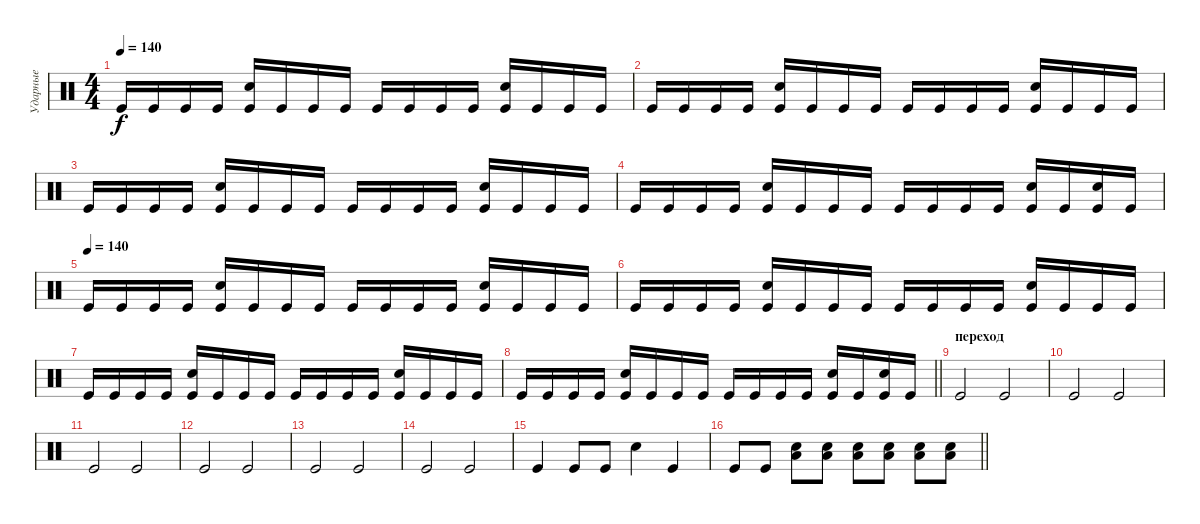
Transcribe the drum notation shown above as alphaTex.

\track ("Ударные" "Ударные") {instrument percussion}
\staff {score}
\articulation defaults
\ts (4 4)
\tempo 140
\clef neutral
\ks c "Kick (hit)".16{dy f} "Kick (hit)".16 "Kick (hit)".16 "Kick (hit)".16
("Kick (hit)" "Electric Snare (hit)").16 "Kick (hit)".16 "Kick (hit)".16 "Kick (hit)".16 "Kick (hit)".16 "Kick (hit)".16 "Kick (hit)".16 "Kick (hit)".16 ("Kick (hit)" "Electric Snare (hit)").16 "Kick (hit)".16 "Kick (hit)".16 "Kick (hit)".16 |
"Kick (hit)".16 "Kick (hit)".16 "Kick (hit)".16 "Kick (hit)".16 ("Kick (hit)" "Electric Snare (hit)").16 "Kick (hit)".16 "Kick (hit)".16 "Kick (hit)".16 "Kick (hit)".16 "Kick (hit)".16 "Kick (hit)".16 "Kick (hit)".16 ("Kick (hit)" "Electric Snare (hit)").16 "Kick (hit)".16 "Kick (hit)".16 "Kick (hit)".16 |
"Kick (hit)".16 "Kick (hit)".16 "Kick (hit)".16 "Kick (hit)".16 ("Kick (hit)" "Electric Snare (hit)").16 "Kick (hit)".16 "Kick (hit)".16 "Kick (hit)".16 "Kick (hit)".16 "Kick (hit)".16 "Kick (hit)".16 "Kick (hit)".16 ("Kick (hit)" "Electric Snare (hit)").16 "Kick (hit)".16 "Kick (hit)".16 "Kick (hit)".16 |
"Kick (hit)".16 "Kick (hit)".16 "Kick (hit)".16 "Kick (hit)".16 ("Kick (hit)" "Electric Snare (hit)").16 "Kick (hit)".16 "Kick (hit)".16 "Kick (hit)".16 "Kick (hit)".16 "Kick (hit)".16 "Kick (hit)".16 "Kick (hit)".16 ("Kick (hit)" "Electric Snare (hit)").16 "Kick (hit)".16 ("Kick (hit)" "Electric Snare (hit)").16 "Kick (hit)".16 |
\tempo (140)
"Kick (hit)".16 "Kick (hit)".16 "Kick (hit)".16 "Kick (hit)".16 ("Kick (hit)" "Electric Snare (hit)").16 "Kick (hit)".16 "Kick (hit)".16 "Kick (hit)".16 "Kick (hit)".16 "Kick (hit)".16 "Kick (hit)".16 "Kick (hit)".16 ("Kick (hit)" "Electric Snare (hit)").16 "Kick (hit)".16 "Kick (hit)".16 "Kick (hit)".16 |
"Kick (hit)".16 "Kick (hit)".16 "Kick (hit)".16 "Kick (hit)".16 ("Kick (hit)" "Electric Snare (hit)").16 "Kick (hit)".16 "Kick (hit)".16 "Kick (hit)".16 "Kick (hit)".16 "Kick (hit)".16 "Kick (hit)".16 "Kick (hit)".16 ("Kick (hit)" "Electric Snare (hit)").16 "Kick (hit)".16 "Kick (hit)".16 "Kick (hit)".16 |
"Kick (hit)".16 "Kick (hit)".16 "Kick (hit)".16 "Kick (hit)".16 ("Kick (hit)" "Electric Snare (hit)").16 "Kick (hit)".16 "Kick (hit)".16 "Kick (hit)".16 "Kick (hit)".16 "Kick (hit)".16 "Kick (hit)".16 "Kick (hit)".16 ("Kick (hit)" "Electric Snare (hit)").16 "Kick (hit)".16 "Kick (hit)".16 "Kick (hit)".16 |
\barLineRight lightlight "Kick (hit)".16 "Kick (hit)".16 "Kick (hit)".16 "Kick (hit)".16
("Kick (hit)" "Electric Snare (hit)").16 "Kick (hit)".16 "Kick (hit)".16 "Kick (hit)".16 "Kick (hit)".16 "Kick (hit)".16 "Kick (hit)".16 "Kick (hit)".16 ("Kick (hit)" "Electric Snare (hit)").16 "Kick (hit)".16 ("Kick (hit)" "Electric Snare (hit)").16 "Kick (hit)".16 |
\section ("" "переход")
"Kick (hit)".2 "Kick (hit)".2 |
"Kick (hit)".2 "Kick (hit)".2 |
"Kick (hit)".2 "Kick (hit)".2 |
"Kick (hit)".2 "Kick (hit)".2 |
"Kick (hit)".2 "Kick (hit)".2 |
"Kick (hit)".2 "Kick (hit)".2 |
"Kick (hit)".4 "Kick (hit)".8 "Kick (hit)".8 "Electric Snare (hit)".4 "Kick (hit)".4 |
\barLineRight lightlight "Kick (hit)".8 "Kick (hit)".8
("Snare (hit) 2" "Low Floor Tom (hit)").8 ("Snare (hit) 2" "Low Floor Tom (hit)").8 ("Snare (hit) 2" "Low Floor Tom (hit)").8 ("Snare (hit) 2" "Low Floor Tom (hit)").8 ("Snare (hit) 2" "Low Floor Tom (hit)").8 ("Snare (hit) 2" "Low Floor Tom (hit)").8
